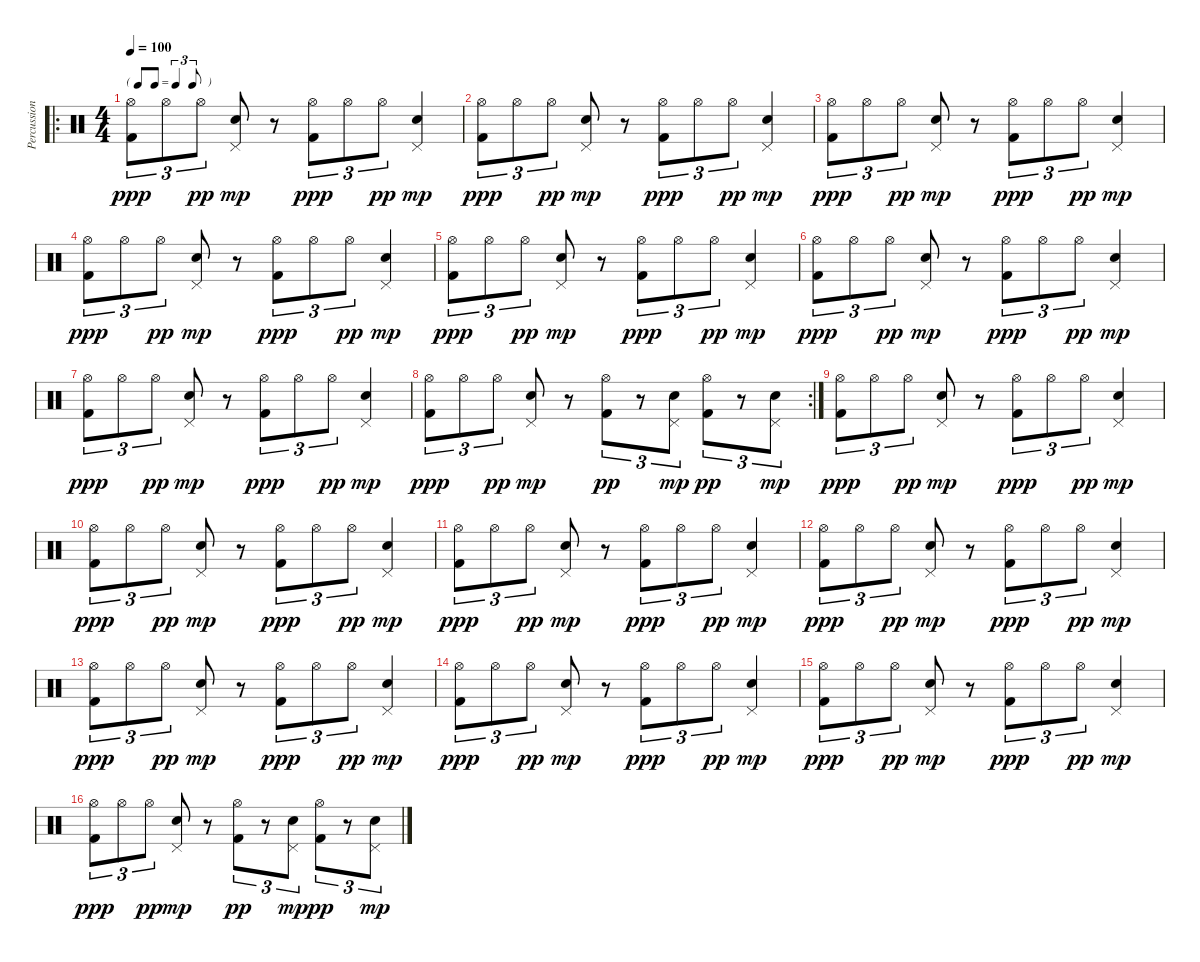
\track ("Percussion" "Percussion") {instrument percussion}
\staff {score}
\articulation defaults
\ro
\ts (4 4)
\tf triplet8th
\tempo 100
\clef neutral
\ks c
("Hi-Hat (open)" "Kick (hit) 2").8{tu (3 2) dy ppp} "Hi-Hat (open)".8{tu (3 2)} "Hi-Hat (open)".8{tu (3 2) dy pp} ("Pedal Hi-Hat (hit)" "Electric Snare (hit)").8{dy mp} r.8 ("Hi-Hat (open)" "Kick (hit) 2").8{tu (3 2) dy ppp} "Hi-Hat (open)".8{tu (3 2)} "Hi-Hat (open)".8{tu (3 2) dy pp} ("Pedal Hi-Hat (hit)" "Electric Snare (hit)").4{dy mp} |
("Hi-Hat (open)" "Kick (hit) 2").8{tu (3 2) dy ppp} "Hi-Hat (open)".8{tu (3 2)} "Hi-Hat (open)".8{tu (3 2) dy pp} ("Pedal Hi-Hat (hit)" "Electric Snare (hit)").8{dy mp} r.8 ("Hi-Hat (open)" "Kick (hit) 2").8{tu (3 2) dy ppp} "Hi-Hat (open)".8{tu (3 2)} "Hi-Hat (open)".8{tu (3 2) dy pp} ("Pedal Hi-Hat (hit)" "Electric Snare (hit)").4{dy mp} |
("Hi-Hat (open)" "Kick (hit) 2").8{tu (3 2) dy ppp} "Hi-Hat (open)".8{tu (3 2)} "Hi-Hat (open)".8{tu (3 2) dy pp} ("Pedal Hi-Hat (hit)" "Electric Snare (hit)").8{dy mp} r.8 ("Hi-Hat (open)" "Kick (hit) 2").8{tu (3 2) dy ppp} "Hi-Hat (open)".8{tu (3 2)} "Hi-Hat (open)".8{tu (3 2) dy pp} ("Pedal Hi-Hat (hit)" "Electric Snare (hit)").4{dy mp} |
("Hi-Hat (open)" "Kick (hit) 2").8{tu (3 2) dy ppp} "Hi-Hat (open)".8{tu (3 2)} "Hi-Hat (open)".8{tu (3 2) dy pp} ("Pedal Hi-Hat (hit)" "Electric Snare (hit)").8{dy mp} r.8 ("Hi-Hat (open)" "Kick (hit) 2").8{tu (3 2) dy ppp} "Hi-Hat (open)".8{tu (3 2)} "Hi-Hat (open)".8{tu (3 2) dy pp} ("Pedal Hi-Hat (hit)" "Electric Snare (hit)").4{dy mp} |
("Hi-Hat (open)" "Kick (hit) 2").8{tu (3 2) dy ppp} "Hi-Hat (open)".8{tu (3 2)} "Hi-Hat (open)".8{tu (3 2) dy pp} ("Pedal Hi-Hat (hit)" "Electric Snare (hit)").8{dy mp} r.8 ("Hi-Hat (open)" "Kick (hit) 2").8{tu (3 2) dy ppp} "Hi-Hat (open)".8{tu (3 2)} "Hi-Hat (open)".8{tu (3 2) dy pp} ("Pedal Hi-Hat (hit)" "Electric Snare (hit)").4{dy mp} |
("Hi-Hat (open)" "Kick (hit) 2").8{tu (3 2) dy ppp} "Hi-Hat (open)".8{tu (3 2)} "Hi-Hat (open)".8{tu (3 2) dy pp} ("Pedal Hi-Hat (hit)" "Electric Snare (hit)").8{dy mp} r.8 ("Hi-Hat (open)" "Kick (hit) 2").8{tu (3 2) dy ppp} "Hi-Hat (open)".8{tu (3 2)} "Hi-Hat (open)".8{tu (3 2) dy pp} ("Pedal Hi-Hat (hit)" "Electric Snare (hit)").4{dy mp} |
("Hi-Hat (open)" "Kick (hit) 2").8{tu (3 2) dy ppp} "Hi-Hat (open)".8{tu (3 2)} "Hi-Hat (open)".8{tu (3 2) dy pp} ("Pedal Hi-Hat (hit)" "Electric Snare (hit)").8{dy mp} r.8 ("Hi-Hat (open)" "Kick (hit) 2").8{tu (3 2) dy ppp} "Hi-Hat (open)".8{tu (3 2)} "Hi-Hat (open)".8{tu (3 2) dy pp} ("Pedal Hi-Hat (hit)" "Electric Snare (hit)").4{dy mp} |
\rc 2
("Hi-Hat (open)" "Kick (hit) 2").8{tu (3 2) dy ppp} "Hi-Hat (open)".8{tu (3 2)} "Hi-Hat (open)".8{tu (3 2) dy pp} ("Pedal Hi-Hat (hit)" "Electric Snare (hit)").8{dy mp} r.8 ("Hi-Hat (open)" "Kick (hit) 2").8{tu (3 2) dy pp} r.8{tu (3 2)} ("Pedal Hi-Hat (hit)" "Electric Snare (hit)").8{tu (3 2) dy mp} ("Hi-Hat (open)" "Kick (hit) 2").8{tu (3 2) dy pp} r.8{tu (3 2)} ("Pedal Hi-Hat (hit)" "Electric Snare (hit)").8{tu (3 2) dy mp} |
("Hi-Hat (open)" "Kick (hit) 2").8{tu (3 2) dy ppp} "Hi-Hat (open)".8{tu (3 2)} "Hi-Hat (open)".8{tu (3 2) dy pp} ("Pedal Hi-Hat (hit)" "Electric Snare (hit)").8{dy mp} r.8 ("Hi-Hat (open)" "Kick (hit) 2").8{tu (3 2) dy ppp} "Hi-Hat (open)".8{tu (3 2)} "Hi-Hat (open)".8{tu (3 2) dy pp} ("Pedal Hi-Hat (hit)" "Electric Snare (hit)").4{dy mp} |
("Hi-Hat (open)" "Kick (hit) 2").8{tu (3 2) dy ppp} "Hi-Hat (open)".8{tu (3 2)} "Hi-Hat (open)".8{tu (3 2) dy pp} ("Pedal Hi-Hat (hit)" "Electric Snare (hit)").8{dy mp} r.8 ("Hi-Hat (open)" "Kick (hit) 2").8{tu (3 2) dy ppp} "Hi-Hat (open)".8{tu (3 2)} "Hi-Hat (open)".8{tu (3 2) dy pp} ("Pedal Hi-Hat (hit)" "Electric Snare (hit)").4{dy mp} |
("Hi-Hat (open)" "Kick (hit) 2").8{tu (3 2) dy ppp} "Hi-Hat (open)".8{tu (3 2)} "Hi-Hat (open)".8{tu (3 2) dy pp} ("Pedal Hi-Hat (hit)" "Electric Snare (hit)").8{dy mp} r.8 ("Hi-Hat (open)" "Kick (hit) 2").8{tu (3 2) dy ppp} "Hi-Hat (open)".8{tu (3 2)} "Hi-Hat (open)".8{tu (3 2) dy pp} ("Pedal Hi-Hat (hit)" "Electric Snare (hit)").4{dy mp} |
("Hi-Hat (open)" "Kick (hit) 2").8{tu (3 2) dy ppp} "Hi-Hat (open)".8{tu (3 2)} "Hi-Hat (open)".8{tu (3 2) dy pp} ("Pedal Hi-Hat (hit)" "Electric Snare (hit)").8{dy mp} r.8 ("Hi-Hat (open)" "Kick (hit) 2").8{tu (3 2) dy ppp} "Hi-Hat (open)".8{tu (3 2)} "Hi-Hat (open)".8{tu (3 2) dy pp} ("Pedal Hi-Hat (hit)" "Electric Snare (hit)").4{dy mp} |
("Hi-Hat (open)" "Kick (hit) 2").8{tu (3 2) dy ppp} "Hi-Hat (open)".8{tu (3 2)} "Hi-Hat (open)".8{tu (3 2) dy pp} ("Pedal Hi-Hat (hit)" "Electric Snare (hit)").8{dy mp} r.8 ("Hi-Hat (open)" "Kick (hit) 2").8{tu (3 2) dy ppp} "Hi-Hat (open)".8{tu (3 2)} "Hi-Hat (open)".8{tu (3 2) dy pp} ("Pedal Hi-Hat (hit)" "Electric Snare (hit)").4{dy mp} |
("Hi-Hat (open)" "Kick (hit) 2").8{tu (3 2) dy ppp} "Hi-Hat (open)".8{tu (3 2)} "Hi-Hat (open)".8{tu (3 2) dy pp} ("Pedal Hi-Hat (hit)" "Electric Snare (hit)").8{dy mp} r.8 ("Hi-Hat (open)" "Kick (hit) 2").8{tu (3 2) dy ppp} "Hi-Hat (open)".8{tu (3 2)} "Hi-Hat (open)".8{tu (3 2) dy pp} ("Pedal Hi-Hat (hit)" "Electric Snare (hit)").4{dy mp} |
("Hi-Hat (open)" "Kick (hit) 2").8{tu (3 2) dy ppp} "Hi-Hat (open)".8{tu (3 2)} "Hi-Hat (open)".8{tu (3 2) dy pp} ("Pedal Hi-Hat (hit)" "Electric Snare (hit)").8{dy mp} r.8 ("Hi-Hat (open)" "Kick (hit) 2").8{tu (3 2) dy ppp} "Hi-Hat (open)".8{tu (3 2)} "Hi-Hat (open)".8{tu (3 2) dy pp} ("Pedal Hi-Hat (hit)" "Electric Snare (hit)").4{dy mp} |
("Hi-Hat (open)" "Kick (hit) 2").8{tu (3 2) dy ppp} "Hi-Hat (open)".8{tu (3 2)} "Hi-Hat (open)".8{tu (3 2) dy pp} ("Pedal Hi-Hat (hit)" "Electric Snare (hit)").8{dy mp} r.8 ("Hi-Hat (open)" "Kick (hit) 2").8{tu (3 2) dy pp} r.8{tu (3 2)} ("Pedal Hi-Hat (hit)" "Electric Snare (hit)").8{tu (3 2) dy mp} ("Hi-Hat (open)" "Kick (hit) 2").8{tu (3 2) dy pp} r.8{tu (3 2)} ("Pedal Hi-Hat (hit)" "Electric Snare (hit)").8{tu (3 2) dy mp}
